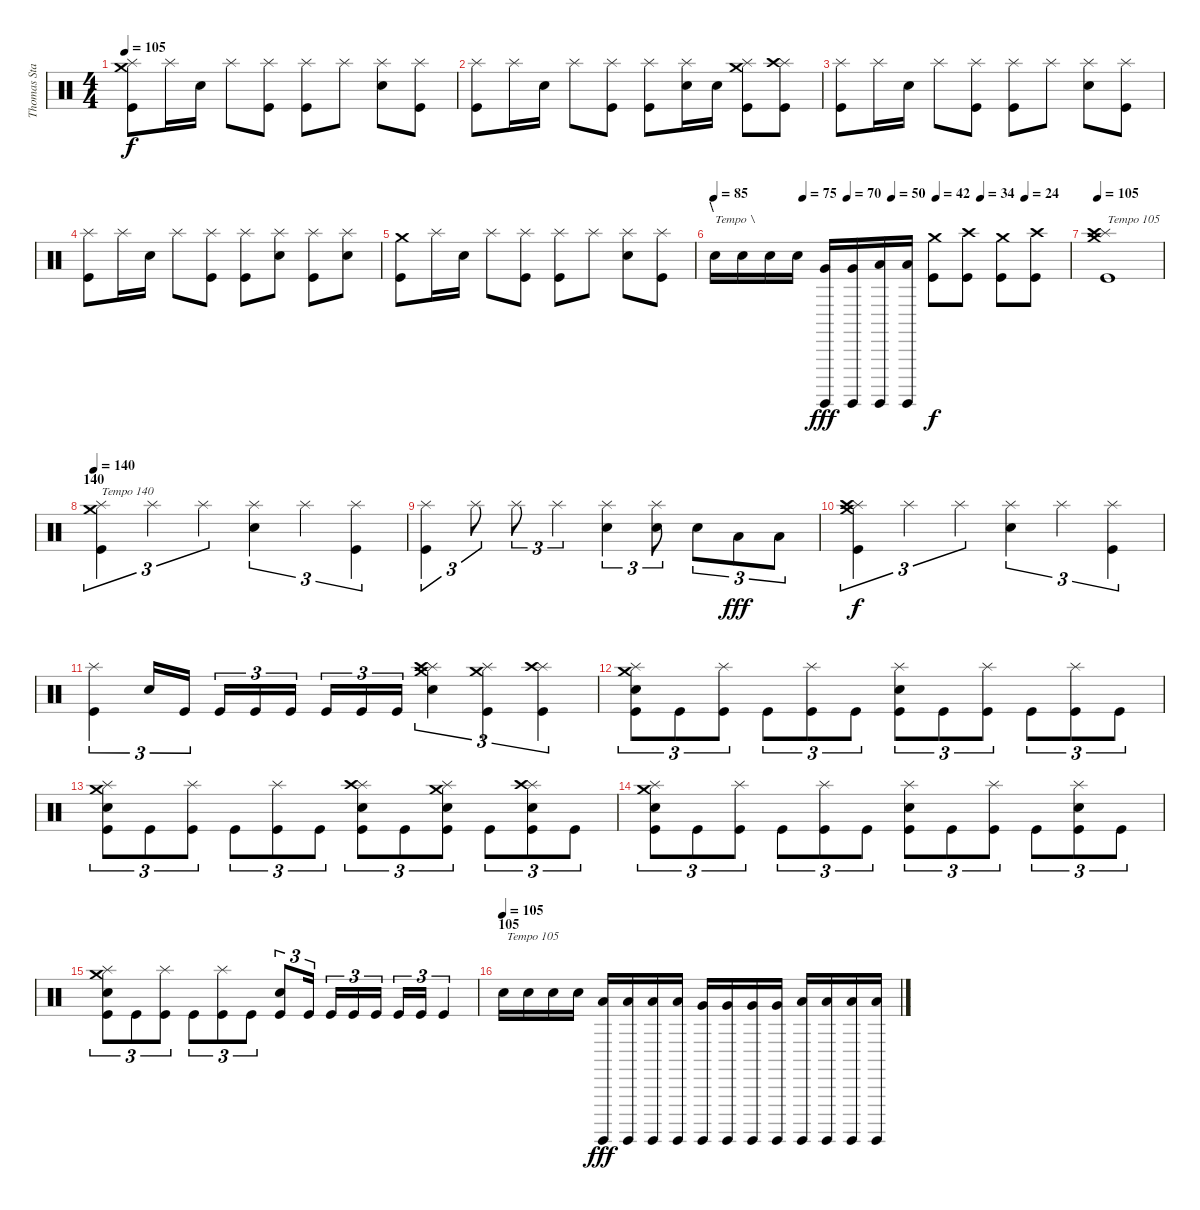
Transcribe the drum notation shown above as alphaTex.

\track ("Thomas Stauch" "Thomas Sta") {instrument percussion}
\staff {score}
\articulation defaults
\ts (4 4)
\tempo 105
\clef neutral
\ks c
("Crash medium (hit)" "Splash (hit)" "Kick (hit)").8{dy f} "Splash (hit)".16 "Electric Snare (hit)".16 "Splash (hit)".8 ("Splash (hit)" "Kick (hit)").8 ("Splash (hit)" "Kick (hit)").8 "Splash (hit)".8 ("Splash (hit)" "Electric Snare (hit)").8 ("Splash (hit)" "Kick (hit)").8 |
("Splash (hit)" "Kick (hit)").8 "Splash (hit)".16 "Electric Snare (hit)".16 "Splash (hit)".8 ("Splash (hit)" "Kick (hit)").8 ("Splash (hit)" "Kick (hit)").8 ("Splash (hit)" "Electric Snare (hit)").16 "Electric Snare (hit)".16 ("Crash medium (hit)" "Splash (hit)" "Kick (hit)").8 ("Splash (hit)" "Crash high (hit)" "Kick (hit)").8 |
("Splash (hit)" "Kick (hit)").8 "Splash (hit)".16 "Electric Snare (hit)".16 "Splash (hit)".8 ("Splash (hit)" "Kick (hit)").8 ("Splash (hit)" "Kick (hit)").8 "Splash (hit)".8 ("Splash (hit)" "Electric Snare (hit)").8 ("Splash (hit)" "Kick (hit)").8 |
("Splash (hit)" "Kick (hit)").8 "Splash (hit)".16 "Electric Snare (hit)".16 "Splash (hit)".8 ("Splash (hit)" "Kick (hit)").8 ("Splash (hit)" "Kick (hit)").8 ("Splash (hit)" "Electric Snare (hit)").8 ("Splash (hit)" "Kick (hit)").8 ("Splash (hit)" "Electric Snare (hit)").8 |
("Crash medium (hit)" "Kick (hit)").8 "Splash (hit)".16 "Electric Snare (hit)".16 "Splash (hit)".8 ("Splash (hit)" "Kick (hit)").8 ("Splash (hit)" "Kick (hit)").8 "Splash (hit)".8 ("Splash (hit)" "Electric Snare (hit)").8 ("Splash (hit)" "Kick (hit)").8 |
\section ("" "\\")
\tempo 85
\tempo (75 0.25)
\tempo (70 0.375)
\tempo (50 0.5)
\tempo (42 0.625)
\tempo (34 0.75)
\tempo (24 0.875)
"Electric Snare (hit)".16{txt "Tempo \\"} "Electric Snare (hit)".16 "Electric Snare (hit)".16 "Electric Snare (hit)".16 ("Surdo (hit)" "Very Low Tom (hit)").16{dy fff} ("Surdo (hit)" "Very Low Tom (hit)").16 ("Surdo (hit)" "Low Floor Tom (hit)").16 ("Surdo (hit)" "Low Floor Tom (hit)").16 ("Crash medium (hit)" "Kick (hit)").8{dy f} ("Crash high (hit)" "Kick (hit)").8 ("Crash medium (hit)" "Kick (hit)").8 ("Crash high (hit)" "Kick (hit)").8 |
\tempo 105
("Crash medium (hit)" "Splash (hit)" "Crash high (hit)" "Kick (hit)").1{txt "Tempo 105"} |
\section ("" "140")
\tempo 140
("Crash medium (hit)" "Splash (hit)" "Kick (hit)").4{tu (3 2) txt "Tempo 140"} "Splash (hit)".4{tu (3 2)} "Splash (hit)".4{tu (3 2)} ("Splash (hit)" "Electric Snare (hit)").4{tu (3 2)} "Splash (hit)".4{tu (3 2)} ("Splash (hit)" "Kick (hit)").4{tu (3 2)} |
("Splash (hit)" "Kick (hit)").4{tu (3 2)} "Splash (hit)".8{tu (3 2)} "Splash (hit)".8{tu (3 2)} "Splash (hit)".4{tu (3 2)} ("Splash (hit)" "Electric Snare (hit)").4{tu (3 2)} ("Splash (hit)" "Electric Snare (hit)").8{tu (3 2)} "Electric Snare (hit)".8{tu (3 2)} "Low Floor Tom (hit)".8{tu (3 2) dy fff} "Low Floor Tom (hit)".8{tu (3 2)} |
("Crash medium (hit)" "Splash (hit)" "Crash high (hit)" "Kick (hit)").4{tu (3 2) dy f} "Splash (hit)".4{tu (3 2)} "Splash (hit)".4{tu (3 2)} ("Splash (hit)" "Electric Snare (hit)").4{tu (3 2)} "Splash (hit)".4{tu (3 2)} ("Splash (hit)" "Kick (hit)").4{tu (3 2)} |
("Splash (hit)" "Kick (hit)").4{tu (3 2)} "Electric Snare (hit)".16{tu (3 2)} "Kick (hit)".16{tu (3 2)} "Kick (hit)".16{tu (3 2)} "Kick (hit)".16{tu (3 2)} "Kick (hit)".16{tu (3 2)} "Kick (hit)".16{tu (3 2)} "Kick (hit)".16{tu (3 2)} "Kick (hit)".16{tu (3 2)} ("Crash medium (hit)" "Splash (hit)" "Crash high (hit)" "Electric Snare (hit)").4{tu (3 2)} ("Crash medium (hit)" "Splash (hit)" "Kick (hit)").4{tu (3 2)} ("Splash (hit)" "Crash high (hit)" "Kick (hit)").4{tu (3 2)} |
("Crash medium (hit)" "Splash (hit)" "Electric Snare (hit)" "Kick (hit)").8{tu (3 2)} "Kick (hit)".8{tu (3 2)} ("Splash (hit)" "Kick (hit)").8{tu (3 2)} "Kick (hit)".8{tu (3 2)} ("Splash (hit)" "Kick (hit)").8{tu (3 2)} "Kick (hit)".8{tu (3 2)} ("Splash (hit)" "Electric Snare (hit)" "Kick (hit)").8{tu (3 2)} "Kick (hit)".8{tu (3 2)} ("Splash (hit)" "Kick (hit)").8{tu (3 2)} "Kick (hit)".8{tu (3 2)} ("Splash (hit)" "Kick (hit)").8{tu (3 2)} "Kick (hit)".8{tu (3 2)} |
("Crash medium (hit)" "Splash (hit)" "Electric Snare (hit)" "Kick (hit)").8{tu (3 2)} "Kick (hit)".8{tu (3 2)} ("Splash (hit)" "Kick (hit)").8{tu (3 2)} "Kick (hit)".8{tu (3 2)} ("Splash (hit)" "Kick (hit)").8{tu (3 2)} "Kick (hit)".8{tu (3 2)} ("Splash (hit)" "Crash high (hit)" "Electric Snare (hit)" "Kick (hit)").8{tu (3 2)} "Kick (hit)".8{tu (3 2)} ("Crash medium (hit)" "Splash (hit)" "Electric Snare (hit)" "Kick (hit)").8{tu (3 2)} "Kick (hit)".8{tu (3 2)} ("Splash (hit)" "Crash high (hit)" "Electric Snare (hit)" "Kick (hit)").8{tu (3 2)} "Kick (hit)".8{tu (3 2)} |
("Crash medium (hit)" "Splash (hit)" "Electric Snare (hit)" "Kick (hit)").8{tu (3 2)} "Kick (hit)".8{tu (3 2)} ("Splash (hit)" "Kick (hit)").8{tu (3 2)} "Kick (hit)".8{tu (3 2)} ("Splash (hit)" "Kick (hit)").8{tu (3 2)} "Kick (hit)".8{tu (3 2)} ("Splash (hit)" "Electric Snare (hit)" "Kick (hit)").8{tu (3 2)} "Kick (hit)".8{tu (3 2)} ("Splash (hit)" "Kick (hit)").8{tu (3 2)} "Kick (hit)".8{tu (3 2)} ("Splash (hit)" "Electric Snare (hit)" "Kick (hit)").8{tu (3 2)} "Kick (hit)".8{tu (3 2)} |
("Crash medium (hit)" "Splash (hit)" "Electric Snare (hit)" "Kick (hit)").8{tu (3 2)} "Kick (hit)".8{tu (3 2)} ("Splash (hit)" "Kick (hit)").8{tu (3 2)} "Kick (hit)".8{tu (3 2)} ("Splash (hit)" "Kick (hit)").8{tu (3 2)} "Kick (hit)".8{tu (3 2)} ("Electric Snare (hit)" "Kick (hit)").8{tu (3 2)} "Kick (hit)".16{tu (3 2)} "Kick (hit)".16{tu (3 2)} "Kick (hit)".16{tu (3 2)} "Kick (hit)".16{tu (3 2)} "Kick (hit)".16{tu (3 2)} "Kick (hit)".16{tu (3 2)} "Kick (hit)".4{tu (3 2)} |
\section ("" "105")
\tempo (105)
"Electric Snare (hit)".16{txt " Tempo 105"} "Electric Snare (hit)".16 "Electric Snare (hit)".16 "Electric Snare (hit)".16 ("Surdo (hit)" "Low Tom (hit)").16{dy fff} ("Surdo (hit)" "Low Tom (hit)").16 ("Surdo (hit)" "Low Tom (hit)").16 ("Surdo (hit)" "Low Tom (hit)").16 ("Surdo (hit)" "Very Low Tom (hit)").16 ("Surdo (hit)" "Very Low Tom (hit)").16 ("Surdo (hit)" "Very Low Tom (hit)").16 ("Surdo (hit)" "Very Low Tom (hit)").16 ("Surdo (hit)" "Low Floor Tom (hit)").16 ("Surdo (hit)" "Low Floor Tom (hit)").16 ("Surdo (hit)" "Low Floor Tom (hit)").16 ("Surdo (hit)" "Low Floor Tom (hit)").16
